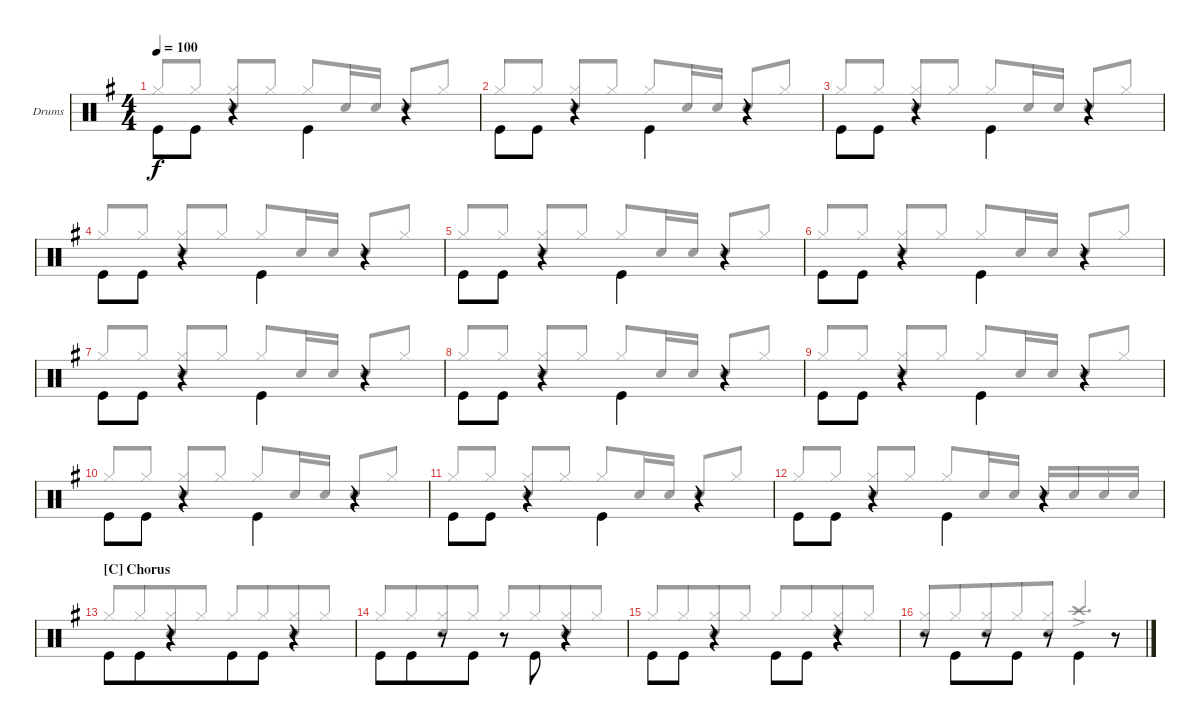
\bracketExtendMode groupsimilarinstruments
\firstSystemTrackNameOrientation horizontal
\otherSystemsTrackNameOrientation horizontal
\track ("Drum" "Drums") {instrument percussion}
\staff {score}
\articulation defaults
\voice
\ts (4 4)
\tempo 100
\clef neutral
\scale
1.02648
\ks g "Kick (hit)".8{dy f beam invert} "Kick (hit)".8
r.4 "Kick (hit)".4{beam invert} r.4 |
\scale
0.973518 "Kick (hit)".8{beam invert} "Kick (hit)".8 r.4 "Kick (hit)".4{beam invert} r.4 |
\scale
1.02648 "Kick (hit)".8{beam invert} "Kick (hit)".8 r.4 "Kick (hit)".4{beam invert} r.4 |
\scale
0.973518 "Kick (hit)".8{beam invert} "Kick (hit)".8 r.4 "Kick (hit)".4{beam invert} r.4 |
\scale
1.02648 "Kick (hit)".8{beam invert} "Kick (hit)".8 r.4 "Kick (hit)".4{beam invert} r.4 |
\scale
0.973518 "Kick (hit)".8{beam invert} "Kick (hit)".8 r.4 "Kick (hit)".4{beam invert} r.4 |
\scale
1.02648 "Kick (hit)".8{beam invert} "Kick (hit)".8 r.4 "Kick (hit)".4{beam invert} r.4 |
\scale
0.973518 "Kick (hit)".8{beam invert} "Kick (hit)".8 r.4 "Kick (hit)".4{beam invert} r.4 |
\scale
1.02648 "Kick (hit)".8{beam invert} "Kick (hit)".8 r.4 "Kick (hit)".4{beam invert} r.4 |
\scale
0.973518 "Kick (hit)".8{beam invert} "Kick (hit)".8 r.4 "Kick (hit)".4{beam invert} r.4 |
\scale
1.02648 "Kick (hit)".8{beam invert} "Kick (hit)".8 r.4 "Kick (hit)".4{beam invert} r.4 |
\scale
0.973518 "Kick (hit)".8{beam invert} "Kick (hit)".8 r.4 "Kick (hit)".4{beam invert} r.4 |
\section ("C" "Chorus")
\scale
1.02648 "Kick (hit)".8{beam invert} "Kick (hit)".8{beam merge} r.4{beam merge} "Kick (hit)".8{beam invert beam merge} "Kick (hit)".8{beam merge} r.4{beam merge} |
\scale
0.973518 "Kick (hit)".8{beam invert} "Kick (hit)".8{beam merge} r.8{beam merge} "Kick (hit)".8 r.8 "Kick (hit)".8{beam invert} r.4 |
\scale
1.02648 "Kick (hit)".8{beam invert} "Kick (hit)".8 r.4 "Kick (hit)".8{beam invert} "Kick (hit)".8 r.4 |
\scale
0.973518 r.8 "Kick (hit)".8{beam invert beam merge} r.8{beam merge} "Kick (hit)".8{beam split} r.8{beam split} "Kick (hit)".4{beam invert beam split} r.8{beam split}
\voice
\clef neutral
\ottava regular
\simile none
\scale
1.02648
\ks g "Hi-Hat (closed)".8{dy f beam invert} "Hi-Hat (closed)".8
("Hi-Hat (closed)" "Snare (hit) 2").8{beam invert} "Hi-Hat (closed)".8 "Hi-Hat (closed)".8{beam invert} "Snare (hit) 2".16 "Snare (hit) 2".16 "Snare (hit) 2".8{beam invert} "Hi-Hat (closed)".8 |
\scale
0.973518 "Hi-Hat (closed)".8{beam invert} "Hi-Hat (closed)".8 ("Hi-Hat (closed)" "Snare (hit) 2").8{beam invert} "Hi-Hat (closed)".8 "Hi-Hat (closed)".8{beam invert} "Snare (hit) 2".16 "Snare (hit) 2".16 "Snare (hit) 2".8{beam invert} "Hi-Hat (closed)".8 |
\scale
1.02648 "Hi-Hat (closed)".8{beam invert} "Hi-Hat (closed)".8 ("Hi-Hat (closed)" "Snare (hit) 2").8{beam invert} "Hi-Hat (closed)".8 "Hi-Hat (closed)".8{beam invert} "Snare (hit) 2".16 "Snare (hit) 2".16 "Snare (hit) 2".8{beam invert} "Hi-Hat (closed)".8 |
\scale
0.973518 "Hi-Hat (closed)".8{beam invert} "Hi-Hat (closed)".8 ("Hi-Hat (closed)" "Snare (hit) 2").8{beam invert} "Hi-Hat (closed)".8 "Hi-Hat (closed)".8{beam invert} "Snare (hit) 2".16 "Snare (hit) 2".16 "Snare (hit) 2".8{beam invert} "Hi-Hat (closed)".8 |
\scale
1.02648 "Hi-Hat (closed)".8{beam invert} "Hi-Hat (closed)".8 ("Hi-Hat (closed)" "Snare (hit) 2").8{beam invert} "Hi-Hat (closed)".8 "Hi-Hat (closed)".8{beam invert} "Snare (hit) 2".16 "Snare (hit) 2".16 "Snare (hit) 2".8{beam invert} "Hi-Hat (closed)".8 |
\scale
0.973518 "Hi-Hat (closed)".8{beam invert} "Hi-Hat (closed)".8 ("Hi-Hat (closed)" "Snare (hit) 2").8{beam invert} "Hi-Hat (closed)".8 "Hi-Hat (closed)".8{beam invert} "Snare (hit) 2".16 "Snare (hit) 2".16 "Snare (hit) 2".8{beam invert} "Hi-Hat (closed)".8 |
\scale
1.02648 "Hi-Hat (closed)".8{beam invert} "Hi-Hat (closed)".8 ("Hi-Hat (closed)" "Snare (hit) 2").8{beam invert} "Hi-Hat (closed)".8 "Hi-Hat (closed)".8{beam invert} "Snare (hit) 2".16 "Snare (hit) 2".16 "Snare (hit) 2".8{beam invert} "Hi-Hat (closed)".8 |
\scale
0.973518 "Hi-Hat (closed)".8{beam invert} "Hi-Hat (closed)".8 ("Hi-Hat (closed)" "Snare (hit) 2").8{beam invert} "Hi-Hat (closed)".8 "Hi-Hat (closed)".8{beam invert} "Snare (hit) 2".16 "Snare (hit) 2".16 "Snare (hit) 2".8{beam invert} "Hi-Hat (closed)".8 |
\scale
1.02648 "Hi-Hat (closed)".8{beam invert} "Hi-Hat (closed)".8 ("Hi-Hat (closed)" "Snare (hit) 2").8{beam invert} "Hi-Hat (closed)".8 "Hi-Hat (closed)".8{beam invert} "Snare (hit) 2".16 "Snare (hit) 2".16 "Snare (hit) 2".8{beam invert} "Hi-Hat (closed)".8 |
\scale
0.973518 "Hi-Hat (closed)".8{beam invert} "Hi-Hat (closed)".8 ("Hi-Hat (closed)" "Snare (hit) 2").8{beam invert} "Hi-Hat (closed)".8 "Hi-Hat (closed)".8{beam invert} "Snare (hit) 2".16 "Snare (hit) 2".16 "Snare (hit) 2".8{beam invert} "Hi-Hat (closed)".8 |
\scale
1.02648 "Hi-Hat (closed)".8{beam invert} "Hi-Hat (closed)".8 ("Hi-Hat (closed)" "Snare (hit) 2").8{beam invert} "Hi-Hat (closed)".8 "Hi-Hat (closed)".8{beam invert} "Snare (hit) 2".16 "Snare (hit) 2".16 "Snare (hit) 2".8{beam invert} "Hi-Hat (closed)".8 |
\scale
0.973518 "Hi-Hat (closed)".8{beam invert} "Hi-Hat (closed)".8 ("Hi-Hat (closed)" "Snare (hit) 2").8{beam invert} "Hi-Hat (closed)".8 "Hi-Hat (closed)".8{beam invert} "Snare (hit) 2".16 "Snare (hit) 2".16 "Snare (hit) 2".16{beam invert} "Snare (hit) 2".16 "Snare (hit) 2".16 "Snare (hit) 2".16 |
\scale
1.02648 "Hi-Hat (closed)".8{beam invert beam merge} "Hi-Hat (closed)".8{beam merge} ("Hi-Hat (closed)" "Snare (hit) 2").8{beam merge} "Hi-Hat (closed)".8{beam split} "Hi-Hat (closed)".8{beam invert beam merge} "Hi-Hat (closed)".8{beam merge} ("Hi-Hat (closed)" "Snare (hit) 2").8{beam merge} "Hi-Hat (closed)".8{beam merge} |
\scale
0.973518 "Hi-Hat (closed)".8{beam invert beam merge} "Hi-Hat (closed)".8{beam merge} ("Hi-Hat (closed)" "Snare (hit) 2").8{beam merge} "Hi-Hat (closed)".8{beam split} "Hi-Hat (closed)".8{beam invert beam merge} "Hi-Hat (closed)".8{beam merge} ("Hi-Hat (closed)" "Snare (hit) 2").8{beam merge} "Hi-Hat (closed)".8{beam merge} |
\scale
1.02648 "Hi-Hat (closed)".8{beam invert beam merge} "Hi-Hat (closed)".8{beam merge} ("Hi-Hat (closed)" "Snare (hit) 2").8{beam merge} "Hi-Hat (closed)".8{beam split} "Hi-Hat (closed)".8{beam invert beam merge} "Hi-Hat (closed)".8{beam merge} ("Hi-Hat (closed)" "Snare (hit) 2").8{beam merge} "Hi-Hat (closed)".8{beam merge} |
\scale
0.973518 ("Hi-Hat (closed)" "Snare (hit) 2").8{beam invert} "Hi-Hat (closed)".8{beam merge} ("Hi-Hat (closed)" "Snare (hit) 2").8 "Hi-Hat (closed)".8{beam merge} ("Hi-Hat (closed)" "Snare (hit) 2").8{beam merge} "Crash high (hit)"{ac}.4{d beam invert}
